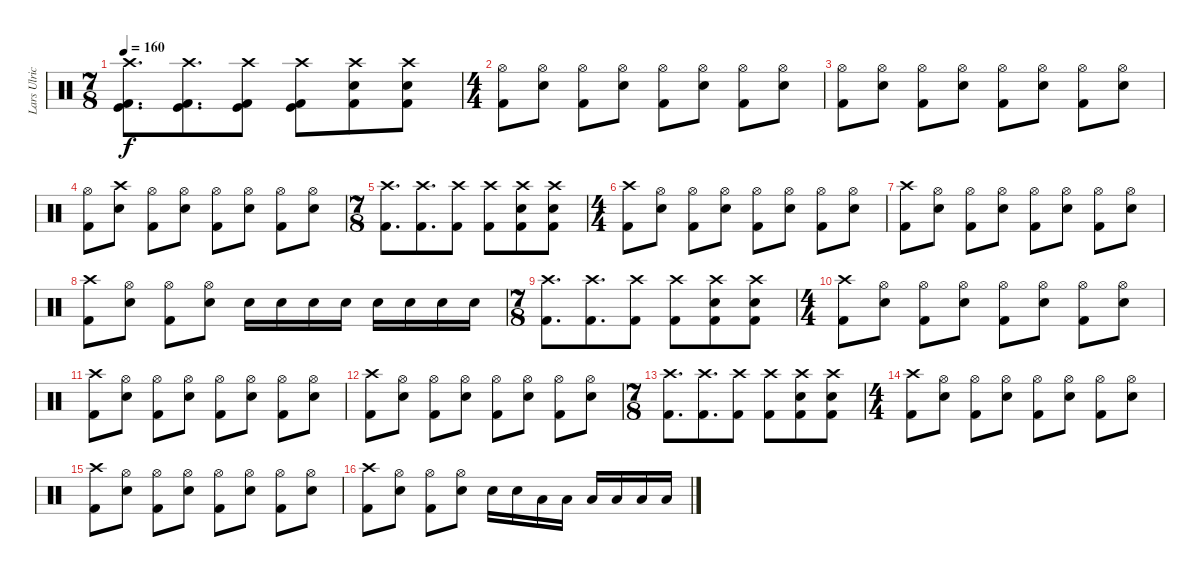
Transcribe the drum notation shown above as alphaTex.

\track ("Lars Ulrich" "Lars Ulric") {instrument percussion}
\staff {score}
\articulation defaults
\ts (7 8)
\tempo 160
\clef neutral
\ks c
("Crash high (hit)" "Kick (hit) 2" "Kick (hit)").8{d dy f} ("Crash high (hit)" "Kick (hit) 2" "Kick (hit)").8{d} ("Crash high (hit)" "Kick (hit) 2" "Kick (hit)").8 ("Crash high (hit)" "Kick (hit) 2" "Kick (hit)").8 ("Crash high (hit)" "Electric Snare (hit)" "Kick (hit) 2").8 ("Crash high (hit)" "Electric Snare (hit)" "Kick (hit) 2").8 |
\ts (4 4)
("Hi-Hat (open)" "Kick (hit) 2").8 ("Hi-Hat (open)" "Electric Snare (hit)").8 ("Hi-Hat (open)" "Kick (hit) 2").8 ("Hi-Hat (open)" "Electric Snare (hit)").8 ("Hi-Hat (open)" "Kick (hit) 2").8 ("Hi-Hat (open)" "Electric Snare (hit)").8 ("Hi-Hat (open)" "Kick (hit) 2").8 ("Hi-Hat (open)" "Electric Snare (hit)").8 |
("Hi-Hat (open)" "Kick (hit) 2").8 ("Hi-Hat (open)" "Electric Snare (hit)").8 ("Hi-Hat (open)" "Kick (hit) 2").8 ("Hi-Hat (open)" "Electric Snare (hit)").8 ("Hi-Hat (open)" "Kick (hit) 2").8 ("Hi-Hat (open)" "Electric Snare (hit)").8 ("Hi-Hat (open)" "Kick (hit) 2").8 ("Hi-Hat (open)" "Electric Snare (hit)").8 |
("Hi-Hat (open)" "Kick (hit) 2").8 ("Crash high (hit)" "Electric Snare (hit)").8 ("Hi-Hat (open)" "Kick (hit) 2").8 ("Hi-Hat (open)" "Electric Snare (hit)").8 ("Hi-Hat (open)" "Kick (hit) 2").8 ("Hi-Hat (open)" "Electric Snare (hit)").8 ("Hi-Hat (open)" "Kick (hit) 2").8 ("Hi-Hat (open)" "Electric Snare (hit)").8 |
\ts (7 8)
("Crash high (hit)" "Kick (hit) 2").8{d} ("Crash high (hit)" "Kick (hit) 2").8{d} ("Crash high (hit)" "Kick (hit) 2").8 ("Crash high (hit)" "Kick (hit) 2").8 ("Crash high (hit)" "Electric Snare (hit)" "Kick (hit) 2").8 ("Crash high (hit)" "Electric Snare (hit)" "Kick (hit) 2").8 |
\ts (4 4)
("Crash high (hit)" "Kick (hit) 2").8 ("Hi-Hat (open)" "Electric Snare (hit)").8 ("Hi-Hat (open)" "Kick (hit) 2").8 ("Hi-Hat (open)" "Electric Snare (hit)").8 ("Hi-Hat (open)" "Kick (hit) 2").8 ("Hi-Hat (open)" "Electric Snare (hit)").8 ("Hi-Hat (open)" "Kick (hit) 2").8 ("Hi-Hat (open)" "Electric Snare (hit)").8 |
("Crash high (hit)" "Kick (hit) 2").8 ("Hi-Hat (open)" "Electric Snare (hit)").8 ("Hi-Hat (open)" "Kick (hit) 2").8 ("Hi-Hat (open)" "Electric Snare (hit)").8 ("Hi-Hat (open)" "Kick (hit) 2").8 ("Hi-Hat (open)" "Electric Snare (hit)").8 ("Hi-Hat (open)" "Kick (hit) 2").8 ("Hi-Hat (open)" "Electric Snare (hit)").8 |
("Crash high (hit)" "Kick (hit) 2").8 ("Hi-Hat (open)" "Electric Snare (hit)").8 ("Hi-Hat (open)" "Kick (hit) 2").8 ("Hi-Hat (open)" "Electric Snare (hit)").8 "Electric Snare (hit)".16 "Electric Snare (hit)".16 "Electric Snare (hit)".16 "Electric Snare (hit)".16 "Electric Snare (hit)".16 "Electric Snare (hit)".16 "Electric Snare (hit)".16 "Electric Snare (hit)".16 |
\ts (7 8)
("Crash high (hit)" "Kick (hit) 2").8{d} ("Crash high (hit)" "Kick (hit) 2").8{d} ("Crash high (hit)" "Kick (hit) 2").8 ("Crash high (hit)" "Kick (hit) 2").8 ("Crash high (hit)" "Electric Snare (hit)" "Kick (hit) 2").8 ("Crash high (hit)" "Electric Snare (hit)" "Kick (hit) 2").8 |
\ts (4 4)
("Crash high (hit)" "Kick (hit) 2").8 ("Hi-Hat (open)" "Electric Snare (hit)").8 ("Hi-Hat (open)" "Kick (hit) 2").8 ("Hi-Hat (open)" "Electric Snare (hit)").8 ("Hi-Hat (open)" "Kick (hit) 2").8 ("Hi-Hat (open)" "Electric Snare (hit)").8 ("Hi-Hat (open)" "Kick (hit) 2").8 ("Hi-Hat (open)" "Electric Snare (hit)").8 |
("Crash high (hit)" "Kick (hit) 2").8 ("Hi-Hat (open)" "Electric Snare (hit)").8 ("Hi-Hat (open)" "Kick (hit) 2").8 ("Hi-Hat (open)" "Electric Snare (hit)").8 ("Hi-Hat (open)" "Kick (hit) 2").8 ("Hi-Hat (open)" "Electric Snare (hit)").8 ("Hi-Hat (open)" "Kick (hit) 2").8 ("Hi-Hat (open)" "Electric Snare (hit)").8 |
("Crash high (hit)" "Kick (hit) 2").8 ("Hi-Hat (open)" "Electric Snare (hit)").8 ("Hi-Hat (open)" "Kick (hit) 2").8 ("Hi-Hat (open)" "Electric Snare (hit)").8 ("Hi-Hat (open)" "Kick (hit) 2").8 ("Hi-Hat (open)" "Electric Snare (hit)").8 ("Hi-Hat (open)" "Kick (hit) 2").8 ("Hi-Hat (open)" "Electric Snare (hit)").8 |
\ts (7 8)
("Crash high (hit)" "Kick (hit) 2").8{d} ("Crash high (hit)" "Kick (hit) 2").8{d} ("Crash high (hit)" "Kick (hit) 2").8 ("Crash high (hit)" "Kick (hit) 2").8 ("Crash high (hit)" "Electric Snare (hit)" "Kick (hit) 2").8 ("Crash high (hit)" "Electric Snare (hit)" "Kick (hit) 2").8 |
\ts (4 4)
("Crash high (hit)" "Kick (hit) 2").8 ("Hi-Hat (open)" "Electric Snare (hit)").8 ("Hi-Hat (open)" "Kick (hit) 2").8 ("Hi-Hat (open)" "Electric Snare (hit)").8 ("Hi-Hat (open)" "Kick (hit) 2").8 ("Hi-Hat (open)" "Electric Snare (hit)").8 ("Hi-Hat (open)" "Kick (hit) 2").8 ("Hi-Hat (open)" "Electric Snare (hit)").8 |
("Crash high (hit)" "Kick (hit) 2").8 ("Hi-Hat (open)" "Electric Snare (hit)").8 ("Hi-Hat (open)" "Kick (hit) 2").8 ("Hi-Hat (open)" "Electric Snare (hit)").8 ("Hi-Hat (open)" "Kick (hit) 2").8 ("Hi-Hat (open)" "Electric Snare (hit)").8 ("Hi-Hat (open)" "Kick (hit) 2").8 ("Hi-Hat (open)" "Electric Snare (hit)").8 |
("Crash high (hit)" "Kick (hit) 2").8 ("Hi-Hat (open)" "Electric Snare (hit)").8 ("Hi-Hat (open)" "Kick (hit) 2").8 ("Hi-Hat (open)" "Electric Snare (hit)").8 "Electric Snare (hit)".16 "Electric Snare (hit)".16 "Low Tom (hit)".16 "Low Tom (hit)".16 "Low Tom (hit)".16 "Low Tom (hit)".16 "Low Tom (hit)".16 "Low Tom (hit)".16
